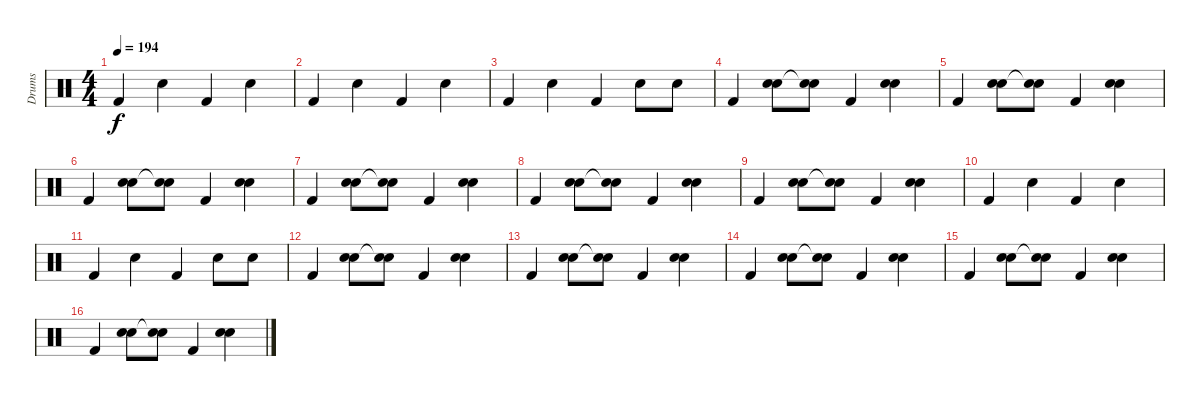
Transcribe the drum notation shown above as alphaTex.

\track ("Drums" "Drums") {instrument percussion}
\staff {score}
\articulation defaults
\ts (4 4)
\tempo 194
\clef neutral
\ks c "Kick (hit) 2".4{dy f} "Snare (hit) 2".4 "Kick (hit) 2".4 "Snare (hit) 2".4
|
"Kick (hit) 2".4 "Snare (hit) 2".4 "Kick (hit) 2".4 "Snare (hit) 2".4 |
"Kick (hit) 2".4 "Snare (hit) 2".4 "Kick (hit) 2".4 "Snare (hit) 2".8 "Snare (hit) 2".8 |
"Kick (hit) 2".4 ("Snare (hit) 2" "Hand Clap (hit)").8 ("Snare (hit)"{t} "Hand Clap (hit)").8 "Kick (hit) 2".4 ("Snare (hit) 2" "Hand Clap (hit)").4 |
"Kick (hit) 2".4 ("Snare (hit) 2" "Hand Clap (hit)").8 ("Snare (hit)"{t} "Hand Clap (hit)").8 "Kick (hit) 2".4 ("Snare (hit) 2" "Hand Clap (hit)").4 |
"Kick (hit) 2".4 ("Snare (hit) 2" "Hand Clap (hit)").8 ("Snare (hit)"{t} "Hand Clap (hit)").8 "Kick (hit) 2".4 ("Snare (hit) 2" "Hand Clap (hit)").4 |
"Kick (hit) 2".4 ("Snare (hit) 2" "Hand Clap (hit)").8 ("Snare (hit)"{t} "Hand Clap (hit)").8 "Kick (hit) 2".4 ("Snare (hit) 2" "Hand Clap (hit)").4 |
"Kick (hit) 2".4 ("Snare (hit) 2" "Hand Clap (hit)").8 ("Snare (hit)"{t} "Hand Clap (hit)").8 "Kick (hit) 2".4 ("Snare (hit) 2" "Hand Clap (hit)").4 |
"Kick (hit) 2".4 ("Snare (hit) 2" "Hand Clap (hit)").8 ("Snare (hit)"{t} "Hand Clap (hit)").8 "Kick (hit) 2".4 ("Snare (hit) 2" "Hand Clap (hit)").4 |
"Kick (hit) 2".4 "Snare (hit) 2".4 "Kick (hit) 2".4 "Snare (hit) 2".4 |
"Kick (hit) 2".4 "Snare (hit) 2".4 "Kick (hit) 2".4 "Snare (hit) 2".8 "Snare (hit) 2".8 |
"Kick (hit) 2".4 ("Snare (hit) 2" "Hand Clap (hit)").8 ("Snare (hit)"{t} "Hand Clap (hit)").8 "Kick (hit) 2".4 ("Snare (hit) 2" "Hand Clap (hit)").4 |
"Kick (hit) 2".4 ("Snare (hit) 2" "Hand Clap (hit)").8 ("Snare (hit)"{t} "Hand Clap (hit)").8 "Kick (hit) 2".4 ("Snare (hit) 2" "Hand Clap (hit)").4 |
"Kick (hit) 2".4 ("Snare (hit) 2" "Hand Clap (hit)").8 ("Snare (hit)"{t} "Hand Clap (hit)").8 "Kick (hit) 2".4 ("Snare (hit) 2" "Hand Clap (hit)").4 |
"Kick (hit) 2".4 ("Snare (hit) 2" "Hand Clap (hit)").8 ("Snare (hit)"{t} "Hand Clap (hit)").8 "Kick (hit) 2".4 ("Snare (hit) 2" "Hand Clap (hit)").4 |
"Kick (hit) 2".4 ("Snare (hit) 2" "Hand Clap (hit)").8 ("Snare (hit)"{t} "Hand Clap (hit)").8 "Kick (hit) 2".4 ("Snare (hit) 2" "Hand Clap (hit)").4
